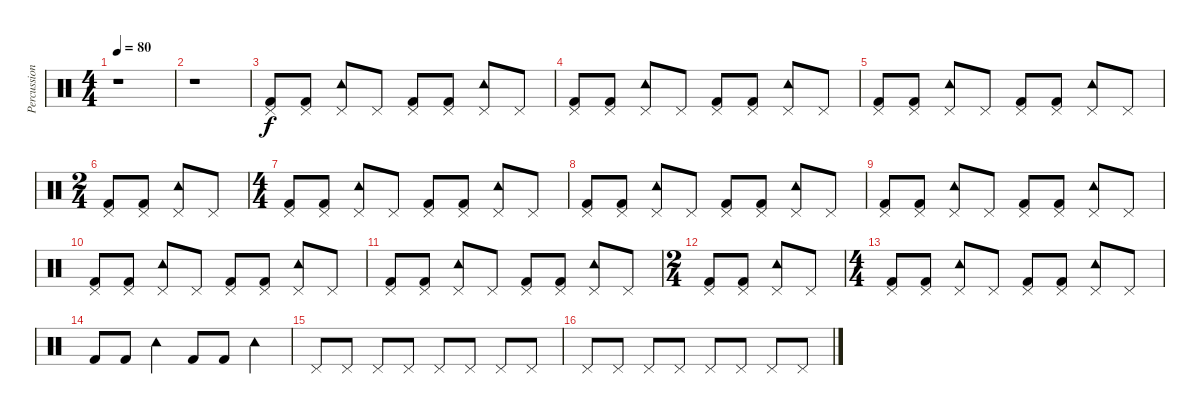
\track ("Percussions" "Percussion") {instrument percussion}
\staff {score}
\articulation defaults
\ts (4 4)
\tempo 80
\clef neutral
\ks c
r.1{dy f} |
r.1 |
("Pedal Hi-Hat (hit)" "Kick (hit) 2").8 ("Pedal Hi-Hat (hit)" "Kick (hit) 2").8 ("Pedal Hi-Hat (hit)" "Tambourine (hit)").8 "Pedal Hi-Hat (hit)".8 ("Pedal Hi-Hat (hit)" "Kick (hit) 2").8 ("Pedal Hi-Hat (hit)" "Kick (hit) 2").8 ("Pedal Hi-Hat (hit)" "Tambourine (hit)").8 "Pedal Hi-Hat (hit)".8 |
("Pedal Hi-Hat (hit)" "Kick (hit) 2").8 ("Pedal Hi-Hat (hit)" "Kick (hit) 2").8 ("Pedal Hi-Hat (hit)" "Tambourine (hit)").8 "Pedal Hi-Hat (hit)".8 ("Pedal Hi-Hat (hit)" "Kick (hit) 2").8 ("Pedal Hi-Hat (hit)" "Kick (hit) 2").8 ("Pedal Hi-Hat (hit)" "Tambourine (hit)").8 "Pedal Hi-Hat (hit)".8 |
("Pedal Hi-Hat (hit)" "Kick (hit) 2").8 ("Pedal Hi-Hat (hit)" "Kick (hit) 2").8 ("Pedal Hi-Hat (hit)" "Tambourine (hit)").8 "Pedal Hi-Hat (hit)".8 ("Pedal Hi-Hat (hit)" "Kick (hit) 2").8 ("Pedal Hi-Hat (hit)" "Kick (hit) 2").8 ("Pedal Hi-Hat (hit)" "Tambourine (hit)").8 "Pedal Hi-Hat (hit)".8 |
\ts (2 4)
("Pedal Hi-Hat (hit)" "Kick (hit) 2").8 ("Pedal Hi-Hat (hit)" "Kick (hit) 2").8 ("Pedal Hi-Hat (hit)" "Tambourine (hit)").8 "Pedal Hi-Hat (hit)".8 |
\ts (4 4)
("Pedal Hi-Hat (hit)" "Kick (hit) 2").8 ("Pedal Hi-Hat (hit)" "Kick (hit) 2").8 ("Pedal Hi-Hat (hit)" "Tambourine (hit)").8 "Pedal Hi-Hat (hit)".8 ("Pedal Hi-Hat (hit)" "Kick (hit) 2").8 ("Pedal Hi-Hat (hit)" "Kick (hit) 2").8 ("Pedal Hi-Hat (hit)" "Tambourine (hit)").8 "Pedal Hi-Hat (hit)".8 |
("Pedal Hi-Hat (hit)" "Kick (hit) 2").8 ("Pedal Hi-Hat (hit)" "Kick (hit) 2").8 ("Pedal Hi-Hat (hit)" "Tambourine (hit)").8 "Pedal Hi-Hat (hit)".8 ("Pedal Hi-Hat (hit)" "Kick (hit) 2").8 ("Pedal Hi-Hat (hit)" "Kick (hit) 2").8 ("Pedal Hi-Hat (hit)" "Tambourine (hit)").8 "Pedal Hi-Hat (hit)".8 |
("Pedal Hi-Hat (hit)" "Kick (hit) 2").8 ("Pedal Hi-Hat (hit)" "Kick (hit) 2").8 ("Pedal Hi-Hat (hit)" "Tambourine (hit)").8 "Pedal Hi-Hat (hit)".8 ("Pedal Hi-Hat (hit)" "Kick (hit) 2").8 ("Pedal Hi-Hat (hit)" "Kick (hit) 2").8 ("Pedal Hi-Hat (hit)" "Tambourine (hit)").8 "Pedal Hi-Hat (hit)".8 |
("Pedal Hi-Hat (hit)" "Kick (hit) 2").8 ("Pedal Hi-Hat (hit)" "Kick (hit) 2").8 ("Pedal Hi-Hat (hit)" "Tambourine (hit)").8 "Pedal Hi-Hat (hit)".8 ("Pedal Hi-Hat (hit)" "Kick (hit) 2").8 ("Pedal Hi-Hat (hit)" "Kick (hit) 2").8 ("Pedal Hi-Hat (hit)" "Tambourine (hit)").8 "Pedal Hi-Hat (hit)".8 |
("Pedal Hi-Hat (hit)" "Kick (hit) 2").8 ("Pedal Hi-Hat (hit)" "Kick (hit) 2").8 ("Pedal Hi-Hat (hit)" "Tambourine (hit)").8 "Pedal Hi-Hat (hit)".8 ("Pedal Hi-Hat (hit)" "Kick (hit) 2").8 ("Pedal Hi-Hat (hit)" "Kick (hit) 2").8 ("Pedal Hi-Hat (hit)" "Tambourine (hit)").8 "Pedal Hi-Hat (hit)".8 |
\ts (2 4)
("Pedal Hi-Hat (hit)" "Kick (hit) 2").8 ("Pedal Hi-Hat (hit)" "Kick (hit) 2").8 ("Pedal Hi-Hat (hit)" "Tambourine (hit)").8 "Pedal Hi-Hat (hit)".8 |
\ts (4 4)
("Pedal Hi-Hat (hit)" "Kick (hit) 2").8 ("Pedal Hi-Hat (hit)" "Kick (hit) 2").8 ("Pedal Hi-Hat (hit)" "Tambourine (hit)").8 "Pedal Hi-Hat (hit)".8 ("Pedal Hi-Hat (hit)" "Kick (hit) 2").8 ("Pedal Hi-Hat (hit)" "Kick (hit) 2").8 ("Pedal Hi-Hat (hit)" "Tambourine (hit)").8 "Pedal Hi-Hat (hit)".8 |
"Kick (hit) 2".8 "Kick (hit) 2".8 "Tambourine (hit)".4 "Kick (hit) 2".8 "Kick (hit) 2".8 "Tambourine (hit)".4 |
"Pedal Hi-Hat (hit)".8 "Pedal Hi-Hat (hit)".8 "Pedal Hi-Hat (hit)".8 "Pedal Hi-Hat (hit)".8 "Pedal Hi-Hat (hit)".8 "Pedal Hi-Hat (hit)".8 "Pedal Hi-Hat (hit)".8 "Pedal Hi-Hat (hit)".8 |
"Pedal Hi-Hat (hit)".8 "Pedal Hi-Hat (hit)".8 "Pedal Hi-Hat (hit)".8 "Pedal Hi-Hat (hit)".8 "Pedal Hi-Hat (hit)".8 "Pedal Hi-Hat (hit)".8 "Pedal Hi-Hat (hit)".8 "Pedal Hi-Hat (hit)".8
